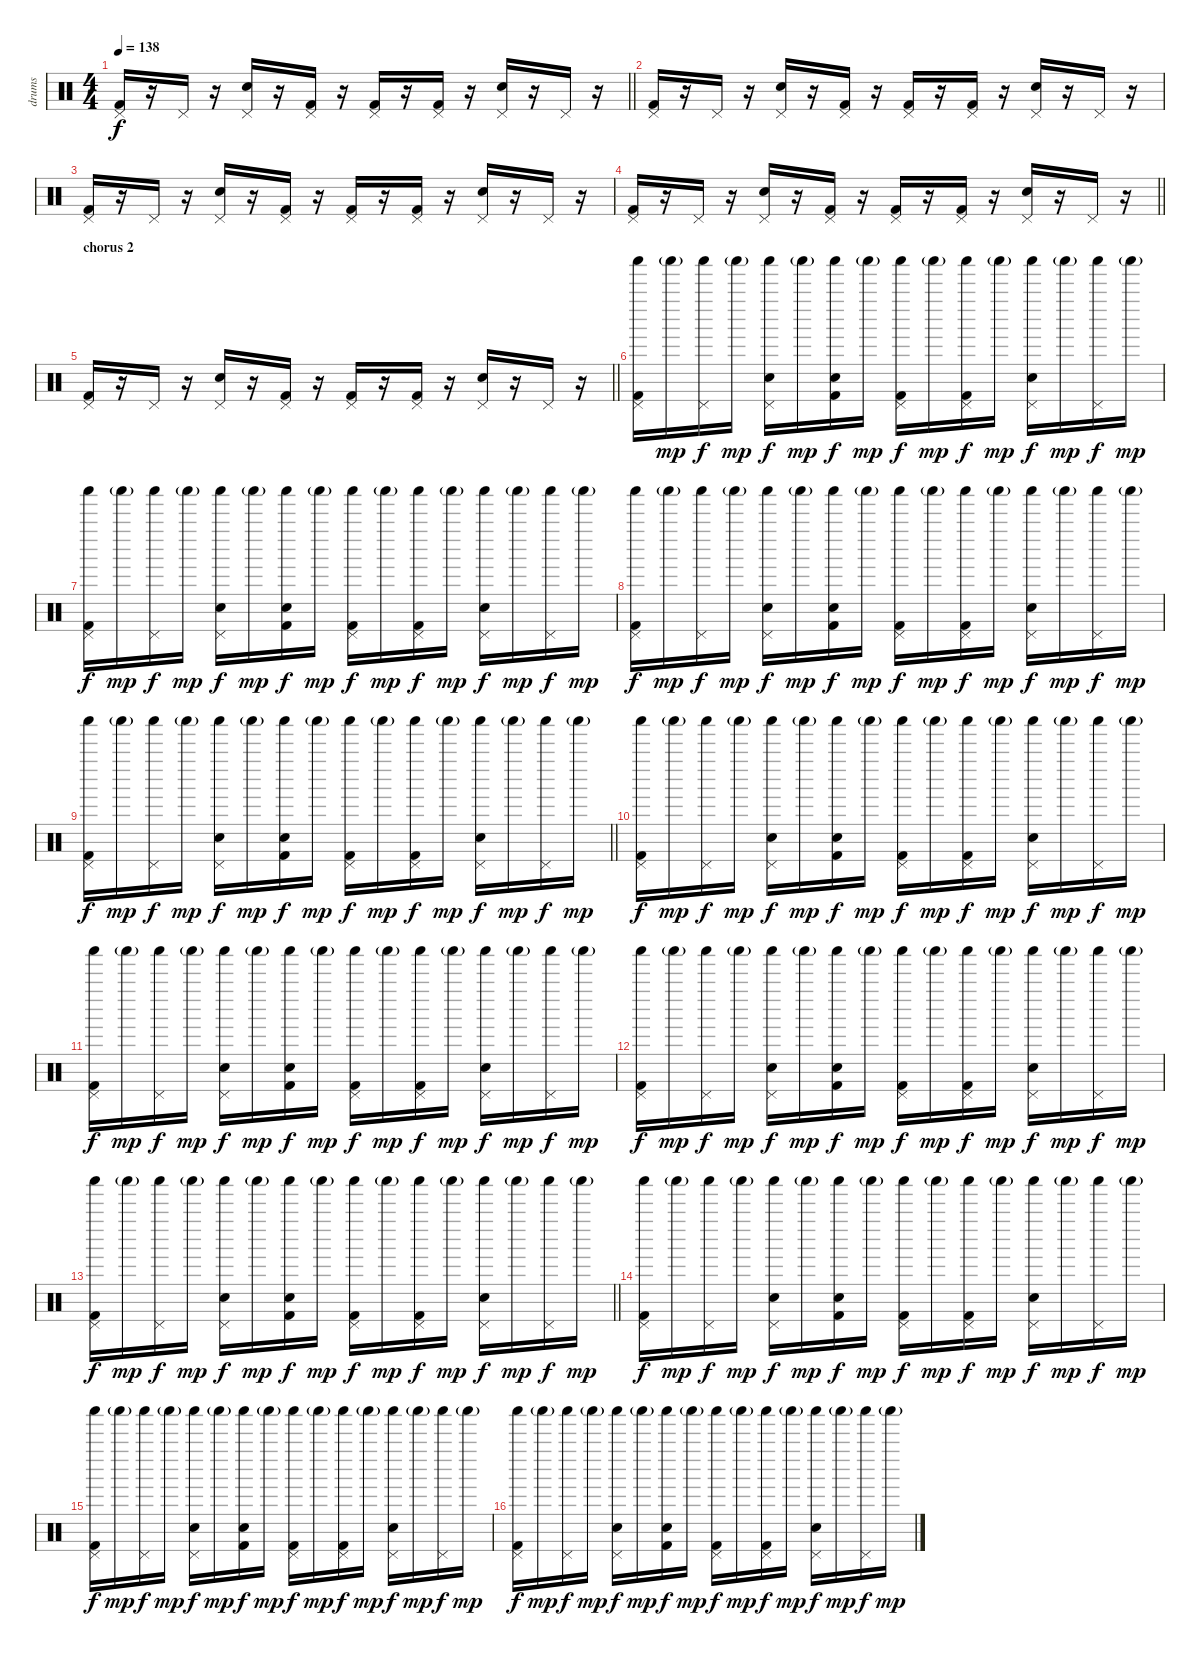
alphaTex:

\track ("drums" "drums") {instrument percussion}
\staff {score}
\articulation defaults
\ts (4 4)
\tempo 138
\clef neutral
\barLineRight lightlight
\ks c
("Kick (hit) 2" "Pedal Hi-Hat (hit)").16{dy f} r.16 "Pedal Hi-Hat (hit)".16 r.16 ("Electric Snare (hit)" "Pedal Hi-Hat (hit)").16 r.16 ("Kick (hit) 2" "Pedal Hi-Hat (hit)").16 r.16 ("Kick (hit) 2" "Pedal Hi-Hat (hit)").16 r.16 ("Kick (hit) 2" "Pedal Hi-Hat (hit)").16 r.16 ("Electric Snare (hit)" "Pedal Hi-Hat (hit)").16 r.16 "Pedal Hi-Hat (hit)".16 r.16 |
("Kick (hit) 2" "Pedal Hi-Hat (hit)").16 r.16 "Pedal Hi-Hat (hit)".16 r.16 ("Electric Snare (hit)" "Pedal Hi-Hat (hit)").16 r.16 ("Kick (hit) 2" "Pedal Hi-Hat (hit)").16 r.16 ("Kick (hit) 2" "Pedal Hi-Hat (hit)").16 r.16 ("Kick (hit) 2" "Pedal Hi-Hat (hit)").16 r.16 ("Electric Snare (hit)" "Pedal Hi-Hat (hit)").16 r.16 "Pedal Hi-Hat (hit)".16 r.16 |
("Kick (hit) 2" "Pedal Hi-Hat (hit)").16 r.16 "Pedal Hi-Hat (hit)".16 r.16 ("Electric Snare (hit)" "Pedal Hi-Hat (hit)").16 r.16 ("Kick (hit) 2" "Pedal Hi-Hat (hit)").16 r.16 ("Kick (hit) 2" "Pedal Hi-Hat (hit)").16 r.16 ("Kick (hit) 2" "Pedal Hi-Hat (hit)").16 r.16 ("Electric Snare (hit)" "Pedal Hi-Hat (hit)").16 r.16 "Pedal Hi-Hat (hit)".16 r.16 |
\barLineRight lightlight
("Kick (hit) 2" "Pedal Hi-Hat (hit)").16 r.16 "Pedal Hi-Hat (hit)".16 r.16 ("Electric Snare (hit)" "Pedal Hi-Hat (hit)").16 r.16 ("Kick (hit) 2" "Pedal Hi-Hat (hit)").16 r.16 ("Kick (hit) 2" "Pedal Hi-Hat (hit)").16 r.16 ("Kick (hit) 2" "Pedal Hi-Hat (hit)").16 r.16 ("Electric Snare (hit)" "Pedal Hi-Hat (hit)").16 r.16 "Pedal Hi-Hat (hit)".16 r.16 |
\section ("" "chorus 2")
\barLineRight lightlight
("Kick (hit) 2" "Pedal Hi-Hat (hit)").16 r.16 "Pedal Hi-Hat (hit)".16 r.16 ("Electric Snare (hit)" "Pedal Hi-Hat (hit)").16 r.16 ("Kick (hit) 2" "Pedal Hi-Hat (hit)").16 r.16 ("Kick (hit) 2" "Pedal Hi-Hat (hit)").16 r.16 ("Kick (hit) 2" "Pedal Hi-Hat (hit)").16 r.16 ("Electric Snare (hit)" "Pedal Hi-Hat (hit)").16 r.16 "Pedal Hi-Hat (hit)".16 r.16 |
("Kick (hit) 2" "Pedal Hi-Hat (hit)" "Shaker (hit)").16 "Shaker (hit)"{g}.16{dy mp} ("Pedal Hi-Hat (hit)" "Shaker (hit)").16{dy f} "Shaker (hit)"{g}.16{dy mp} ("Electric Snare (hit)" "Pedal Hi-Hat (hit)" "Shaker (hit)").16{dy f} "Shaker (hit)"{g}.16{dy mp} ("Kick (hit) 2" "Snare (hit)" "Shaker (hit)").16{dy f} "Shaker (hit)"{g}.16{dy mp} ("Kick (hit) 2" "Pedal Hi-Hat (hit)" "Shaker (hit)").16{dy f} "Shaker (hit)"{g}.16{dy mp} ("Kick (hit) 2" "Pedal Hi-Hat (hit)" "Shaker (hit)").16{dy f} "Shaker (hit)"{g}.16{dy mp} ("Electric Snare (hit)" "Pedal Hi-Hat (hit)" "Shaker (hit)").16{dy f} "Shaker (hit)"{g}.16{dy mp} ("Pedal Hi-Hat (hit)" "Shaker (hit)").16{dy f} "Shaker (hit)"{g}.16{dy mp} |
("Kick (hit) 2" "Pedal Hi-Hat (hit)" "Shaker (hit)").16{dy f} "Shaker (hit)"{g}.16{dy mp} ("Pedal Hi-Hat (hit)" "Shaker (hit)").16{dy f} "Shaker (hit)"{g}.16{dy mp} ("Electric Snare (hit)" "Pedal Hi-Hat (hit)" "Shaker (hit)").16{dy f} "Shaker (hit)"{g}.16{dy mp} ("Kick (hit) 2" "Snare (hit)" "Shaker (hit)").16{dy f} "Shaker (hit)"{g}.16{dy mp} ("Kick (hit) 2" "Pedal Hi-Hat (hit)" "Shaker (hit)").16{dy f} "Shaker (hit)"{g}.16{dy mp} ("Kick (hit) 2" "Pedal Hi-Hat (hit)" "Shaker (hit)").16{dy f} "Shaker (hit)"{g}.16{dy mp} ("Electric Snare (hit)" "Pedal Hi-Hat (hit)" "Shaker (hit)").16{dy f} "Shaker (hit)"{g}.16{dy mp} ("Pedal Hi-Hat (hit)" "Shaker (hit)").16{dy f} "Shaker (hit)"{g}.16{dy mp} |
("Kick (hit) 2" "Pedal Hi-Hat (hit)" "Shaker (hit)").16{dy f} "Shaker (hit)"{g}.16{dy mp} ("Pedal Hi-Hat (hit)" "Shaker (hit)").16{dy f} "Shaker (hit)"{g}.16{dy mp} ("Electric Snare (hit)" "Pedal Hi-Hat (hit)" "Shaker (hit)").16{dy f} "Shaker (hit)"{g}.16{dy mp} ("Kick (hit) 2" "Snare (hit)" "Shaker (hit)").16{dy f} "Shaker (hit)"{g}.16{dy mp} ("Kick (hit) 2" "Pedal Hi-Hat (hit)" "Shaker (hit)").16{dy f} "Shaker (hit)"{g}.16{dy mp} ("Kick (hit) 2" "Pedal Hi-Hat (hit)" "Shaker (hit)").16{dy f} "Shaker (hit)"{g}.16{dy mp} ("Electric Snare (hit)" "Pedal Hi-Hat (hit)" "Shaker (hit)").16{dy f} "Shaker (hit)"{g}.16{dy mp} ("Pedal Hi-Hat (hit)" "Shaker (hit)").16{dy f} "Shaker (hit)"{g}.16{dy mp} |
\barLineRight lightlight
("Kick (hit) 2" "Pedal Hi-Hat (hit)" "Shaker (hit)").16{dy f} "Shaker (hit)"{g}.16{dy mp} ("Pedal Hi-Hat (hit)" "Shaker (hit)").16{dy f} "Shaker (hit)"{g}.16{dy mp} ("Electric Snare (hit)" "Pedal Hi-Hat (hit)" "Shaker (hit)").16{dy f} "Shaker (hit)"{g}.16{dy mp} ("Kick (hit) 2" "Snare (hit)" "Shaker (hit)").16{dy f} "Shaker (hit)"{g}.16{dy mp} ("Kick (hit) 2" "Pedal Hi-Hat (hit)" "Shaker (hit)").16{dy f} "Shaker (hit)"{g}.16{dy mp} ("Kick (hit) 2" "Pedal Hi-Hat (hit)" "Shaker (hit)").16{dy f} "Shaker (hit)"{g}.16{dy mp} ("Electric Snare (hit)" "Pedal Hi-Hat (hit)" "Shaker (hit)").16{dy f} "Shaker (hit)"{g}.16{dy mp} ("Pedal Hi-Hat (hit)" "Shaker (hit)").16{dy f} "Shaker (hit)"{g}.16{dy mp} |
("Kick (hit) 2" "Pedal Hi-Hat (hit)" "Shaker (hit)").16{dy f} "Shaker (hit)"{g}.16{dy mp} ("Pedal Hi-Hat (hit)" "Shaker (hit)").16{dy f} "Shaker (hit)"{g}.16{dy mp} ("Electric Snare (hit)" "Pedal Hi-Hat (hit)" "Shaker (hit)").16{dy f} "Shaker (hit)"{g}.16{dy mp} ("Kick (hit) 2" "Snare (hit)" "Shaker (hit)").16{dy f} "Shaker (hit)"{g}.16{dy mp} ("Kick (hit) 2" "Pedal Hi-Hat (hit)" "Shaker (hit)").16{dy f} "Shaker (hit)"{g}.16{dy mp} ("Kick (hit) 2" "Pedal Hi-Hat (hit)" "Shaker (hit)").16{dy f} "Shaker (hit)"{g}.16{dy mp} ("Electric Snare (hit)" "Pedal Hi-Hat (hit)" "Shaker (hit)").16{dy f} "Shaker (hit)"{g}.16{dy mp} ("Pedal Hi-Hat (hit)" "Shaker (hit)").16{dy f} "Shaker (hit)"{g}.16{dy mp} |
("Kick (hit) 2" "Pedal Hi-Hat (hit)" "Shaker (hit)").16{dy f} "Shaker (hit)"{g}.16{dy mp} ("Pedal Hi-Hat (hit)" "Shaker (hit)").16{dy f} "Shaker (hit)"{g}.16{dy mp} ("Electric Snare (hit)" "Pedal Hi-Hat (hit)" "Shaker (hit)").16{dy f} "Shaker (hit)"{g}.16{dy mp} ("Kick (hit) 2" "Snare (hit)" "Shaker (hit)").16{dy f} "Shaker (hit)"{g}.16{dy mp} ("Kick (hit) 2" "Pedal Hi-Hat (hit)" "Shaker (hit)").16{dy f} "Shaker (hit)"{g}.16{dy mp} ("Kick (hit) 2" "Pedal Hi-Hat (hit)" "Shaker (hit)").16{dy f} "Shaker (hit)"{g}.16{dy mp} ("Electric Snare (hit)" "Pedal Hi-Hat (hit)" "Shaker (hit)").16{dy f} "Shaker (hit)"{g}.16{dy mp} ("Pedal Hi-Hat (hit)" "Shaker (hit)").16{dy f} "Shaker (hit)"{g}.16{dy mp} |
("Kick (hit) 2" "Pedal Hi-Hat (hit)" "Shaker (hit)").16{dy f} "Shaker (hit)"{g}.16{dy mp} ("Pedal Hi-Hat (hit)" "Shaker (hit)").16{dy f} "Shaker (hit)"{g}.16{dy mp} ("Electric Snare (hit)" "Pedal Hi-Hat (hit)" "Shaker (hit)").16{dy f} "Shaker (hit)"{g}.16{dy mp} ("Kick (hit) 2" "Snare (hit)" "Shaker (hit)").16{dy f} "Shaker (hit)"{g}.16{dy mp} ("Kick (hit) 2" "Pedal Hi-Hat (hit)" "Shaker (hit)").16{dy f} "Shaker (hit)"{g}.16{dy mp} ("Kick (hit) 2" "Pedal Hi-Hat (hit)" "Shaker (hit)").16{dy f} "Shaker (hit)"{g}.16{dy mp} ("Electric Snare (hit)" "Pedal Hi-Hat (hit)" "Shaker (hit)").16{dy f} "Shaker (hit)"{g}.16{dy mp} ("Pedal Hi-Hat (hit)" "Shaker (hit)").16{dy f} "Shaker (hit)"{g}.16{dy mp} |
\barLineRight lightlight
("Kick (hit) 2" "Pedal Hi-Hat (hit)" "Shaker (hit)").16{dy f} "Shaker (hit)"{g}.16{dy mp} ("Pedal Hi-Hat (hit)" "Shaker (hit)").16{dy f} "Shaker (hit)"{g}.16{dy mp} ("Electric Snare (hit)" "Pedal Hi-Hat (hit)" "Shaker (hit)").16{dy f} "Shaker (hit)"{g}.16{dy mp} ("Kick (hit) 2" "Snare (hit)" "Shaker (hit)").16{dy f} "Shaker (hit)"{g}.16{dy mp} ("Kick (hit) 2" "Pedal Hi-Hat (hit)" "Shaker (hit)").16{dy f} "Shaker (hit)"{g}.16{dy mp} ("Kick (hit) 2" "Pedal Hi-Hat (hit)" "Shaker (hit)").16{dy f} "Shaker (hit)"{g}.16{dy mp} ("Electric Snare (hit)" "Pedal Hi-Hat (hit)" "Shaker (hit)").16{dy f} "Shaker (hit)"{g}.16{dy mp} ("Pedal Hi-Hat (hit)" "Shaker (hit)").16{dy f} "Shaker (hit)"{g}.16{dy mp} |
("Kick (hit) 2" "Pedal Hi-Hat (hit)" "Shaker (hit)").16{dy f} "Shaker (hit)"{g}.16{dy mp} ("Pedal Hi-Hat (hit)" "Shaker (hit)").16{dy f} "Shaker (hit)"{g}.16{dy mp} ("Electric Snare (hit)" "Pedal Hi-Hat (hit)" "Shaker (hit)").16{dy f} "Shaker (hit)"{g}.16{dy mp} ("Kick (hit) 2" "Snare (hit)" "Shaker (hit)").16{dy f} "Shaker (hit)"{g}.16{dy mp} ("Kick (hit) 2" "Pedal Hi-Hat (hit)" "Shaker (hit)").16{dy f} "Shaker (hit)"{g}.16{dy mp} ("Kick (hit) 2" "Pedal Hi-Hat (hit)" "Shaker (hit)").16{dy f} "Shaker (hit)"{g}.16{dy mp} ("Electric Snare (hit)" "Pedal Hi-Hat (hit)" "Shaker (hit)").16{dy f} "Shaker (hit)"{g}.16{dy mp} ("Pedal Hi-Hat (hit)" "Shaker (hit)").16{dy f} "Shaker (hit)"{g}.16{dy mp} |
("Kick (hit) 2" "Pedal Hi-Hat (hit)" "Shaker (hit)").16{dy f} "Shaker (hit)"{g}.16{dy mp} ("Pedal Hi-Hat (hit)" "Shaker (hit)").16{dy f} "Shaker (hit)"{g}.16{dy mp} ("Electric Snare (hit)" "Pedal Hi-Hat (hit)" "Shaker (hit)").16{dy f} "Shaker (hit)"{g}.16{dy mp} ("Kick (hit) 2" "Snare (hit)" "Shaker (hit)").16{dy f} "Shaker (hit)"{g}.16{dy mp} ("Kick (hit) 2" "Pedal Hi-Hat (hit)" "Shaker (hit)").16{dy f} "Shaker (hit)"{g}.16{dy mp} ("Kick (hit) 2" "Pedal Hi-Hat (hit)" "Shaker (hit)").16{dy f} "Shaker (hit)"{g}.16{dy mp} ("Electric Snare (hit)" "Pedal Hi-Hat (hit)" "Shaker (hit)").16{dy f} "Shaker (hit)"{g}.16{dy mp} ("Pedal Hi-Hat (hit)" "Shaker (hit)").16{dy f} "Shaker (hit)"{g}.16{dy mp} |
("Kick (hit) 2" "Pedal Hi-Hat (hit)" "Shaker (hit)").16{dy f} "Shaker (hit)"{g}.16{dy mp} ("Pedal Hi-Hat (hit)" "Shaker (hit)").16{dy f} "Shaker (hit)"{g}.16{dy mp} ("Electric Snare (hit)" "Pedal Hi-Hat (hit)" "Shaker (hit)").16{dy f} "Shaker (hit)"{g}.16{dy mp} ("Kick (hit) 2" "Snare (hit)" "Shaker (hit)").16{dy f} "Shaker (hit)"{g}.16{dy mp} ("Kick (hit) 2" "Pedal Hi-Hat (hit)" "Shaker (hit)").16{dy f} "Shaker (hit)"{g}.16{dy mp} ("Kick (hit) 2" "Pedal Hi-Hat (hit)" "Shaker (hit)").16{dy f} "Shaker (hit)"{g}.16{dy mp} ("Electric Snare (hit)" "Pedal Hi-Hat (hit)" "Shaker (hit)").16{dy f} "Shaker (hit)"{g}.16{dy mp} ("Pedal Hi-Hat (hit)" "Shaker (hit)").16{dy f} "Shaker (hit)"{g}.16{dy mp}
